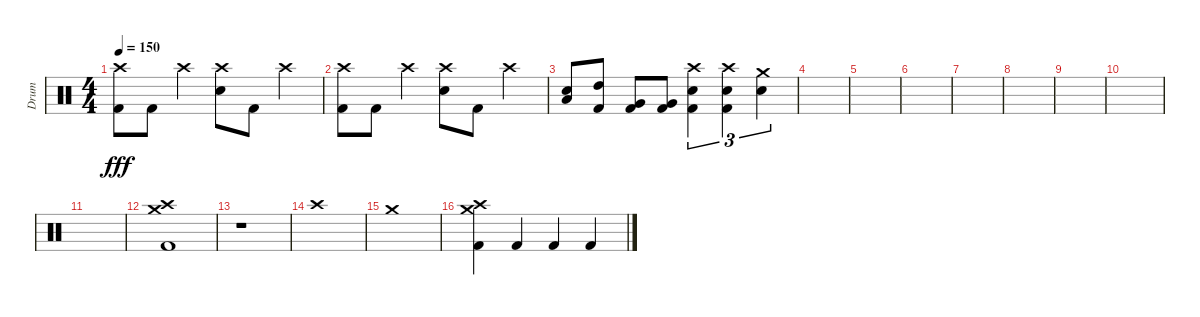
\track ("Drum" "Drum") {instrument percussion}
\staff {score}
\articulation defaults
\ts (4 4)
\tempo 150
\clef neutral
\ks c
("Crash high (hit)" "Kick (hit) 2").8{dy fff} "Kick (hit) 2".8 "Crash high (hit)".4 ("Crash high (hit)" "Electric Snare (hit)").8 "Kick (hit) 2".8 "Crash high (hit)".4 |
("Crash high (hit)" "Kick (hit) 2").8 "Kick (hit) 2".8 "Crash high (hit)".4 ("Crash high (hit)" "Electric Snare (hit)").8 "Kick (hit) 2".8 "Crash high (hit)".4 |
("Electric Snare (hit)" "Low Floor Tom (hit)").8 ("High Tom (hit)" "Kick (hit) 2").8 ("Very Low Tom (hit)" "Kick (hit) 2").8 ("Very Low Tom (hit)" "Kick (hit) 2").8 ("Crash high (hit)" "Electric Snare (hit)" "Kick (hit) 2").4{tu (3 2)} ("Crash high (hit)" "Electric Snare (hit)" "Kick (hit) 2").4{tu (3 2)} ("Crash medium (hit)" "Electric Snare (hit)").4{tu (3 2)} |
|
|
|
|
|
|
|
|
("Crash high (hit)" "Crash medium (hit)" "Kick (hit) 2").1 |
r.1 |
"Crash high (hit)".1 |
"Crash medium (hit)".1 |
("Crash high (hit)" "Crash medium (hit)" "Kick (hit) 2").4 "Kick (hit) 2".4 "Kick (hit) 2".4 "Kick (hit) 2".4
